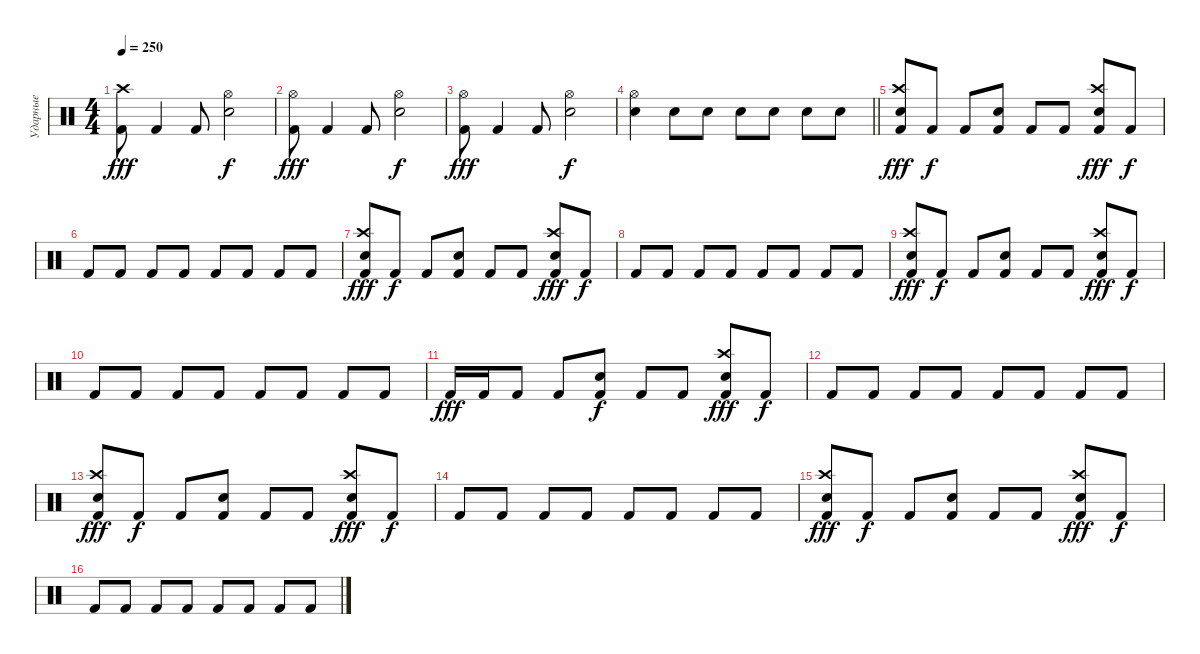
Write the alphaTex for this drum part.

\track ("Ударные" "Ударные") {instrument percussion}
\staff {score}
\articulation defaults
\ts (4 4)
\tempo 250
\clef neutral
\ks c
("Kick (hit) 2" "Crash high (hit)").8{dy fff} "Kick (hit) 2".4 "Kick (hit) 2".8 ("Snare (hit) 2" "Hi-Hat (open)").2{dy f} |
("Kick (hit) 2" "Hi-Hat (open)").8{dy fff} "Kick (hit) 2".4 "Kick (hit) 2".8 ("Snare (hit) 2" "Hi-Hat (open)").2{dy f} |
("Kick (hit) 2" "Hi-Hat (open)").8{dy fff} "Kick (hit) 2".4 "Kick (hit) 2".8 ("Snare (hit) 2" "Hi-Hat (open)").2{dy f} |
\barLineRight lightlight
("Snare (hit) 2" "Hi-Hat (open)").4 "Snare (hit) 2".8 "Snare (hit) 2".8 "Snare (hit) 2".8 "Snare (hit) 2".8 "Snare (hit) 2".8 "Snare (hit) 2".8 |
("Kick (hit) 2" "Snare (hit) 2" "Crash high (hit)").8{dy fff} "Kick (hit) 2".8{dy f} "Kick (hit) 2".8 ("Kick (hit) 2" "Snare (hit) 2").8 "Kick (hit) 2".8 "Kick (hit) 2".8 ("Kick (hit) 2" "Snare (hit) 2" "Crash high (hit)").8{dy fff} "Kick (hit) 2".8{dy f} |
"Kick (hit) 2".8 "Kick (hit) 2".8 "Kick (hit) 2".8 "Kick (hit) 2".8 "Kick (hit) 2".8 "Kick (hit) 2".8 "Kick (hit) 2".8 "Kick (hit) 2".8 |
("Kick (hit) 2" "Snare (hit) 2" "Crash high (hit)").8{dy fff} "Kick (hit) 2".8{dy f} "Kick (hit) 2".8 ("Kick (hit) 2" "Snare (hit) 2").8 "Kick (hit) 2".8 "Kick (hit) 2".8 ("Kick (hit) 2" "Snare (hit) 2" "Crash high (hit)").8{dy fff} "Kick (hit) 2".8{dy f} |
"Kick (hit) 2".8 "Kick (hit) 2".8 "Kick (hit) 2".8 "Kick (hit) 2".8 "Kick (hit) 2".8 "Kick (hit) 2".8 "Kick (hit) 2".8 "Kick (hit) 2".8 |
("Kick (hit) 2" "Snare (hit) 2" "Crash high (hit)").8{dy fff} "Kick (hit) 2".8{dy f} "Kick (hit) 2".8 ("Kick (hit) 2" "Snare (hit) 2").8 "Kick (hit) 2".8 "Kick (hit) 2".8 ("Kick (hit) 2" "Snare (hit) 2" "Crash high (hit)").8{dy fff} "Kick (hit) 2".8{dy f} |
"Kick (hit) 2".8 "Kick (hit) 2".8 "Kick (hit) 2".8 "Kick (hit) 2".8 "Kick (hit) 2".8 "Kick (hit) 2".8 "Kick (hit) 2".8 "Kick (hit) 2".8 |
"Kick (hit) 2".16{dy fff} "Kick (hit) 2".16 "Kick (hit) 2".8 "Kick (hit) 2".8 ("Kick (hit) 2" "Snare (hit) 2").8{dy f} "Kick (hit) 2".8 "Kick (hit) 2".8 ("Kick (hit) 2" "Snare (hit) 2" "Crash high (hit)").8{dy fff} "Kick (hit) 2".8{dy f} |
"Kick (hit) 2".8 "Kick (hit) 2".8 "Kick (hit) 2".8 "Kick (hit) 2".8 "Kick (hit) 2".8 "Kick (hit) 2".8 "Kick (hit) 2".8 "Kick (hit) 2".8 |
("Kick (hit) 2" "Snare (hit) 2" "Crash high (hit)").8{dy fff} "Kick (hit) 2".8{dy f} "Kick (hit) 2".8 ("Kick (hit) 2" "Snare (hit) 2").8 "Kick (hit) 2".8 "Kick (hit) 2".8 ("Kick (hit) 2" "Snare (hit) 2" "Crash high (hit)").8{dy fff} "Kick (hit) 2".8{dy f} |
"Kick (hit) 2".8 "Kick (hit) 2".8 "Kick (hit) 2".8 "Kick (hit) 2".8 "Kick (hit) 2".8 "Kick (hit) 2".8 "Kick (hit) 2".8 "Kick (hit) 2".8 |
("Kick (hit) 2" "Snare (hit) 2" "Crash high (hit)").8{dy fff} "Kick (hit) 2".8{dy f} "Kick (hit) 2".8 ("Kick (hit) 2" "Snare (hit) 2").8 "Kick (hit) 2".8 "Kick (hit) 2".8 ("Kick (hit) 2" "Snare (hit) 2" "Crash high (hit)").8{dy fff} "Kick (hit) 2".8{dy f} |
"Kick (hit) 2".8 "Kick (hit) 2".8 "Kick (hit) 2".8 "Kick (hit) 2".8 "Kick (hit) 2".8 "Kick (hit) 2".8 "Kick (hit) 2".8 "Kick (hit) 2".8
